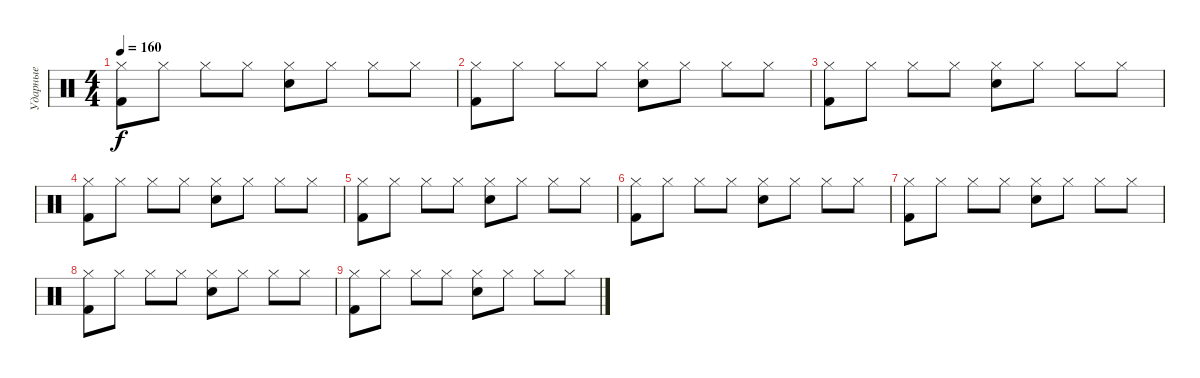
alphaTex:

\track ("Ударные" "Ударные") {instrument percussion}
\staff {score}
\articulation defaults
\ts (4 4)
\tempo 160
\clef neutral
\ks c
("Kick (hit) 2" "Hi-Hat (closed)").8{dy f} "Hi-Hat (closed)".8 "Hi-Hat (closed)".8 "Hi-Hat (closed)".8 ("Snare (hit) 2" "Hi-Hat (closed)").8 "Hi-Hat (closed)".8 "Hi-Hat (closed)".8 "Hi-Hat (closed)".8 |
("Kick (hit) 2" "Hi-Hat (closed)").8 "Hi-Hat (closed)".8 "Hi-Hat (closed)".8 "Hi-Hat (closed)".8 ("Snare (hit) 2" "Hi-Hat (closed)").8 "Hi-Hat (closed)".8 "Hi-Hat (closed)".8 "Hi-Hat (closed)".8 |
("Kick (hit) 2" "Hi-Hat (closed)").8 "Hi-Hat (closed)".8 "Hi-Hat (closed)".8 "Hi-Hat (closed)".8 ("Snare (hit) 2" "Hi-Hat (closed)").8 "Hi-Hat (closed)".8 "Hi-Hat (closed)".8 "Hi-Hat (closed)".8 |
("Kick (hit) 2" "Hi-Hat (closed)").8 "Hi-Hat (closed)".8 "Hi-Hat (closed)".8 "Hi-Hat (closed)".8 ("Snare (hit) 2" "Hi-Hat (closed)").8 "Hi-Hat (closed)".8 "Hi-Hat (closed)".8 "Hi-Hat (closed)".8 |
("Kick (hit) 2" "Hi-Hat (closed)").8 "Hi-Hat (closed)".8 "Hi-Hat (closed)".8 "Hi-Hat (closed)".8 ("Snare (hit) 2" "Hi-Hat (closed)").8 "Hi-Hat (closed)".8 "Hi-Hat (closed)".8 "Hi-Hat (closed)".8 |
("Kick (hit) 2" "Hi-Hat (closed)").8 "Hi-Hat (closed)".8 "Hi-Hat (closed)".8 "Hi-Hat (closed)".8 ("Snare (hit) 2" "Hi-Hat (closed)").8 "Hi-Hat (closed)".8 "Hi-Hat (closed)".8 "Hi-Hat (closed)".8 |
("Kick (hit) 2" "Hi-Hat (closed)").8 "Hi-Hat (closed)".8 "Hi-Hat (closed)".8 "Hi-Hat (closed)".8 ("Snare (hit) 2" "Hi-Hat (closed)").8 "Hi-Hat (closed)".8 "Hi-Hat (closed)".8 "Hi-Hat (closed)".8 |
("Kick (hit) 2" "Hi-Hat (closed)").8 "Hi-Hat (closed)".8 "Hi-Hat (closed)".8 "Hi-Hat (closed)".8 ("Snare (hit) 2" "Hi-Hat (closed)").8 "Hi-Hat (closed)".8 "Hi-Hat (closed)".8 "Hi-Hat (closed)".8 |
("Kick (hit) 2" "Hi-Hat (closed)").8 "Hi-Hat (closed)".8 "Hi-Hat (closed)".8 "Hi-Hat (closed)".8 ("Snare (hit) 2" "Hi-Hat (closed)").8 "Hi-Hat (closed)".8 "Hi-Hat (closed)".8 "Hi-Hat (closed)".8
